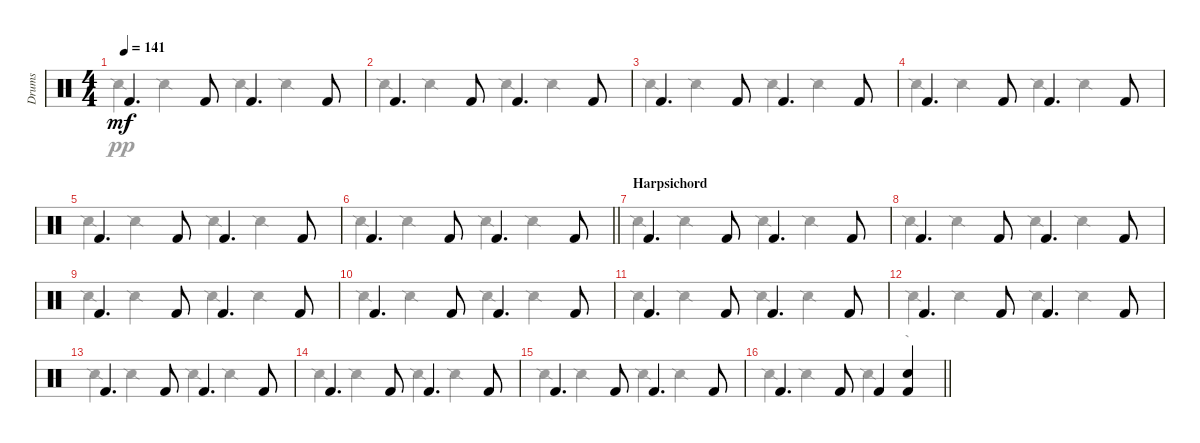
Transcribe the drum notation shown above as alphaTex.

\track ("Drums" "Drums") {instrument percussion}
\staff {score}
\articulation defaults
\voice
\ts (4 4)
\tempo 141
\clef neutral
\ks c "Kick (hit) 2".4{d dy mf} "Kick (hit) 2".8 "Kick (hit) 2".4{d} "Kick (hit) 2".8
|
"Kick (hit) 2".4{d} "Kick (hit) 2".8 "Kick (hit) 2".4{d} "Kick (hit) 2".8 |
"Kick (hit) 2".4{d} "Kick (hit) 2".8 "Kick (hit) 2".4{d} "Kick (hit) 2".8 |
"Kick (hit) 2".4{d} "Kick (hit) 2".8 "Kick (hit) 2".4{d} "Kick (hit) 2".8 |
"Kick (hit) 2".4{d} "Kick (hit) 2".8 "Kick (hit) 2".4{d} "Kick (hit) 2".8 |
\barLineRight lightlight "Kick (hit) 2".4{d} "Kick (hit) 2".8 "Kick (hit) 2".4{d} "Kick (hit) 2".8
|
\section ("" "Harpsichord")
"Kick (hit) 2".4{d} "Kick (hit) 2".8 "Kick (hit) 2".4{d} "Kick (hit) 2".8 |
"Kick (hit) 2".4{d} "Kick (hit) 2".8 "Kick (hit) 2".4{d} "Kick (hit) 2".8 |
"Kick (hit) 2".4{d} "Kick (hit) 2".8 "Kick (hit) 2".4{d} "Kick (hit) 2".8 |
"Kick (hit) 2".4{d} "Kick (hit) 2".8 "Kick (hit) 2".4{d} "Kick (hit) 2".8 |
"Kick (hit) 2".4{d} "Kick (hit) 2".8 "Kick (hit) 2".4{d} "Kick (hit) 2".8 |
"Kick (hit) 2".4{d} "Kick (hit) 2".8 "Kick (hit) 2".4{d} "Kick (hit) 2".8 |
"Kick (hit) 2".4{d} "Kick (hit) 2".8 "Kick (hit) 2".4{d} "Kick (hit) 2".8 |
"Kick (hit) 2".4{d} "Kick (hit) 2".8 "Kick (hit) 2".4{d} "Kick (hit) 2".8 |
"Kick (hit) 2".4{d} "Kick (hit) 2".8 "Kick (hit) 2".4{d} "Kick (hit) 2".8 |
\barLineRight lightlight "Kick (hit) 2".4{d} "Kick (hit) 2".8 "Kick (hit) 2".4
("Kick (hit) 2" "Electric Snare (hit)").4
\voice
\clef neutral
\ottava regular
\simile none
\ks c "Snare (side stick) 2".4{dy pp} "Snare (side stick) 2".4 "Snare (side stick) 2".4 "Snare (side stick) 2".4
|
"Snare (side stick) 2".4 "Snare (side stick) 2".4 "Snare (side stick) 2".4 "Snare (side stick) 2".4 |
"Snare (side stick) 2".4 "Snare (side stick) 2".4 "Snare (side stick) 2".4 "Snare (side stick) 2".4 |
"Snare (side stick) 2".4 "Snare (side stick) 2".4 "Snare (side stick) 2".4 "Snare (side stick) 2".4 |
"Snare (side stick) 2".4 "Snare (side stick) 2".4 "Snare (side stick) 2".4 "Snare (side stick) 2".4 |
\barLineRight lightlight "Snare (side stick) 2".4 "Snare (side stick) 2".4 "Snare (side stick) 2".4 "Snare (side stick) 2".4
|
"Snare (side stick) 2".4 "Snare (side stick) 2".4 "Snare (side stick) 2".4 "Snare (side stick) 2".4 |
"Snare (side stick) 2".4 "Snare (side stick) 2".4 "Snare (side stick) 2".4 "Snare (side stick) 2".4 |
"Snare (side stick) 2".4 "Snare (side stick) 2".4 "Snare (side stick) 2".4 "Snare (side stick) 2".4 |
"Snare (side stick) 2".4 "Snare (side stick) 2".4 "Snare (side stick) 2".4 "Snare (side stick) 2".4 |
"Snare (side stick) 2".4 "Snare (side stick) 2".4 "Snare (side stick) 2".4 "Snare (side stick) 2".4 |
"Snare (side stick) 2".4 "Snare (side stick) 2".4 "Snare (side stick) 2".4 "Snare (side stick) 2".4 |
"Snare (side stick) 2".4 "Snare (side stick) 2".4 "Snare (side stick) 2".4 "Snare (side stick) 2".4 |
"Snare (side stick) 2".4 "Snare (side stick) 2".4 "Snare (side stick) 2".4 "Snare (side stick) 2".4 |
"Snare (side stick) 2".4 "Snare (side stick) 2".4 "Snare (side stick) 2".4 "Snare (side stick) 2".4 |
\barLineRight lightlight "Snare (side stick) 2".4 "Snare (side stick) 2".4 "Snare (side stick) 2".4
r.4
